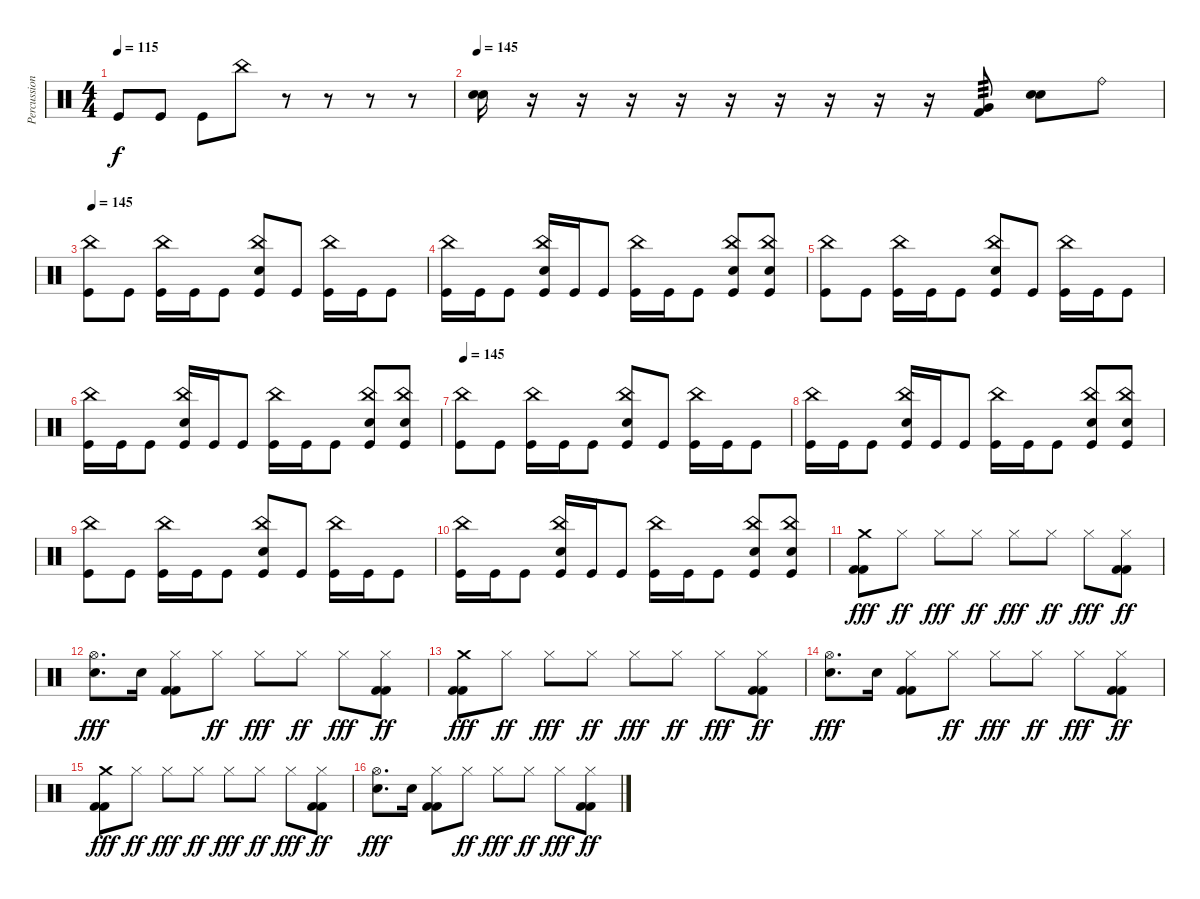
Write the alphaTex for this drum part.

\track ("Percussion" "Percussion") {instrument percussion}
\staff {score}
\articulation defaults
\ts (4 4)
\tempo 115
\clef neutral
\ks c "Kick (hit)".8{dy f} "Kick (hit)".8 "Kick (hit)".8 "China (hit)".8
r.8 r.8 r.8 r.8 |
\tempo 145
("Electric Snare (hit)" "Electric Snare (hit)").16 r.16 r.16 r.16 r.16 r.16 r.16 r.16 r.16 r.16 ("Very Low Tom (hit)" "Kick (hit) 2").8{tp 3} ("Electric Snare (hit)" "Electric Snare (hit)").8 "Ride (bell)".8 |
\tempo 145
("China (hit)" "Kick (hit)").8 "Kick (hit)".8 ("China (hit)" "Kick (hit)").16 "Kick (hit)".16 "Kick (hit)".8 ("China (hit)" "Electric Snare (hit)" "Kick (hit)").8 "Kick (hit)".8 ("China (hit)" "Kick (hit)").16 "Kick (hit)".16 "Kick (hit)".8 |
("China (hit)" "Kick (hit)").16 "Kick (hit)".16 "Kick (hit)".8 ("China (hit)" "Electric Snare (hit)" "Kick (hit)").16 "Kick (hit)".16 "Kick (hit)".8 ("China (hit)" "Kick (hit)").16 "Kick (hit)".16 "Kick (hit)".8 ("China (hit)" "Electric Snare (hit)" "Kick (hit)").8 ("China (hit)" "Electric Snare (hit)" "Kick (hit)").8 |
("China (hit)" "Kick (hit)").8 "Kick (hit)".8 ("China (hit)" "Kick (hit)").16 "Kick (hit)".16 "Kick (hit)".8 ("China (hit)" "Electric Snare (hit)" "Kick (hit)").8 "Kick (hit)".8 ("China (hit)" "Kick (hit)").16 "Kick (hit)".16 "Kick (hit)".8 |
("China (hit)" "Kick (hit)").16 "Kick (hit)".16 "Kick (hit)".8 ("China (hit)" "Electric Snare (hit)" "Kick (hit)").16 "Kick (hit)".16 "Kick (hit)".8 ("China (hit)" "Kick (hit)").16 "Kick (hit)".16 "Kick (hit)".8 ("China (hit)" "Electric Snare (hit)" "Kick (hit)").8 ("China (hit)" "Electric Snare (hit)" "Kick (hit)").8 |
\tempo 145
("China (hit)" "Kick (hit)").8 "Kick (hit)".8 ("China (hit)" "Kick (hit)").16 "Kick (hit)".16 "Kick (hit)".8 ("China (hit)" "Electric Snare (hit)" "Kick (hit)").8 "Kick (hit)".8 ("China (hit)" "Kick (hit)").16 "Kick (hit)".16 "Kick (hit)".8 |
("China (hit)" "Kick (hit)").16 "Kick (hit)".16 "Kick (hit)".8 ("China (hit)" "Electric Snare (hit)" "Kick (hit)").16 "Kick (hit)".16 "Kick (hit)".8 ("China (hit)" "Kick (hit)").16 "Kick (hit)".16 "Kick (hit)".8 ("China (hit)" "Electric Snare (hit)" "Kick (hit)").8 ("China (hit)" "Electric Snare (hit)" "Kick (hit)").8 |
("China (hit)" "Kick (hit)").8 "Kick (hit)".8 ("China (hit)" "Kick (hit)").16 "Kick (hit)".16 "Kick (hit)".8 ("China (hit)" "Electric Snare (hit)" "Kick (hit)").8 "Kick (hit)".8 ("China (hit)" "Kick (hit)").16 "Kick (hit)".16 "Kick (hit)".8 |
("China (hit)" "Kick (hit)").16 "Kick (hit)".16 "Kick (hit)".8 ("China (hit)" "Electric Snare (hit)" "Kick (hit)").16 "Kick (hit)".16 "Kick (hit)".8 ("China (hit)" "Kick (hit)").16 "Kick (hit)".16 "Kick (hit)".8 ("China (hit)" "Electric Snare (hit)" "Kick (hit)").8 ("China (hit)" "Electric Snare (hit)" "Kick (hit)").8 |
("Kick (hit) 2" "Kick (hit) 2" "Crash medium (hit)").8{dy fff} "Hi-Hat (closed)".8{dy ff} "Hi-Hat (closed)".8{dy fff} "Hi-Hat (closed)".8{dy ff} "Hi-Hat (closed)".8{dy fff} "Hi-Hat (closed)".8{dy ff} "Hi-Hat (closed)".8{dy fff} ("Kick (hit) 2" "Kick (hit) 2" "Hi-Hat (closed)").8{dy ff} |
("Electric Snare (hit)" "Hi-Hat (open)").8{d dy fff} "Electric Snare (hit)".16 ("Kick (hit) 2" "Kick (hit) 2" "Hi-Hat (closed)").8 "Hi-Hat (closed)".8{dy ff} "Hi-Hat (closed)".8{dy fff} "Hi-Hat (closed)".8{dy ff} "Hi-Hat (closed)".8{dy fff} ("Kick (hit) 2" "Kick (hit) 2" "Hi-Hat (closed)").8{dy ff} |
("Kick (hit) 2" "Kick (hit) 2" "Crash medium (hit)").8{dy fff} "Hi-Hat (closed)".8{dy ff} "Hi-Hat (closed)".8{dy fff} "Hi-Hat (closed)".8{dy ff} "Hi-Hat (closed)".8{dy fff} "Hi-Hat (closed)".8{dy ff} "Hi-Hat (closed)".8{dy fff} ("Kick (hit) 2" "Kick (hit) 2" "Hi-Hat (closed)").8{dy ff} |
("Electric Snare (hit)" "Hi-Hat (open)").8{d dy fff} "Electric Snare (hit)".16 ("Kick (hit) 2" "Kick (hit) 2" "Hi-Hat (closed)").8 "Hi-Hat (closed)".8{dy ff} "Hi-Hat (closed)".8{dy fff} "Hi-Hat (closed)".8{dy ff} "Hi-Hat (closed)".8{dy fff} ("Kick (hit) 2" "Kick (hit) 2" "Hi-Hat (closed)").8{dy ff} |
("Kick (hit) 2" "Kick (hit) 2" "Crash medium (hit)").8{dy fff} "Hi-Hat (closed)".8{dy ff} "Hi-Hat (closed)".8{dy fff} "Hi-Hat (closed)".8{dy ff} "Hi-Hat (closed)".8{dy fff} "Hi-Hat (closed)".8{dy ff} "Hi-Hat (closed)".8{dy fff} ("Kick (hit) 2" "Kick (hit) 2" "Hi-Hat (closed)").8{dy ff} |
("Electric Snare (hit)" "Hi-Hat (open)").8{d dy fff} "Electric Snare (hit)".16 ("Kick (hit) 2" "Kick (hit) 2" "Hi-Hat (closed)").8 "Hi-Hat (closed)".8{dy ff} "Hi-Hat (closed)".8{dy fff} "Hi-Hat (closed)".8{dy ff} "Hi-Hat (closed)".8{dy fff} ("Kick (hit) 2" "Kick (hit) 2" "Hi-Hat (closed)").8{dy ff}
